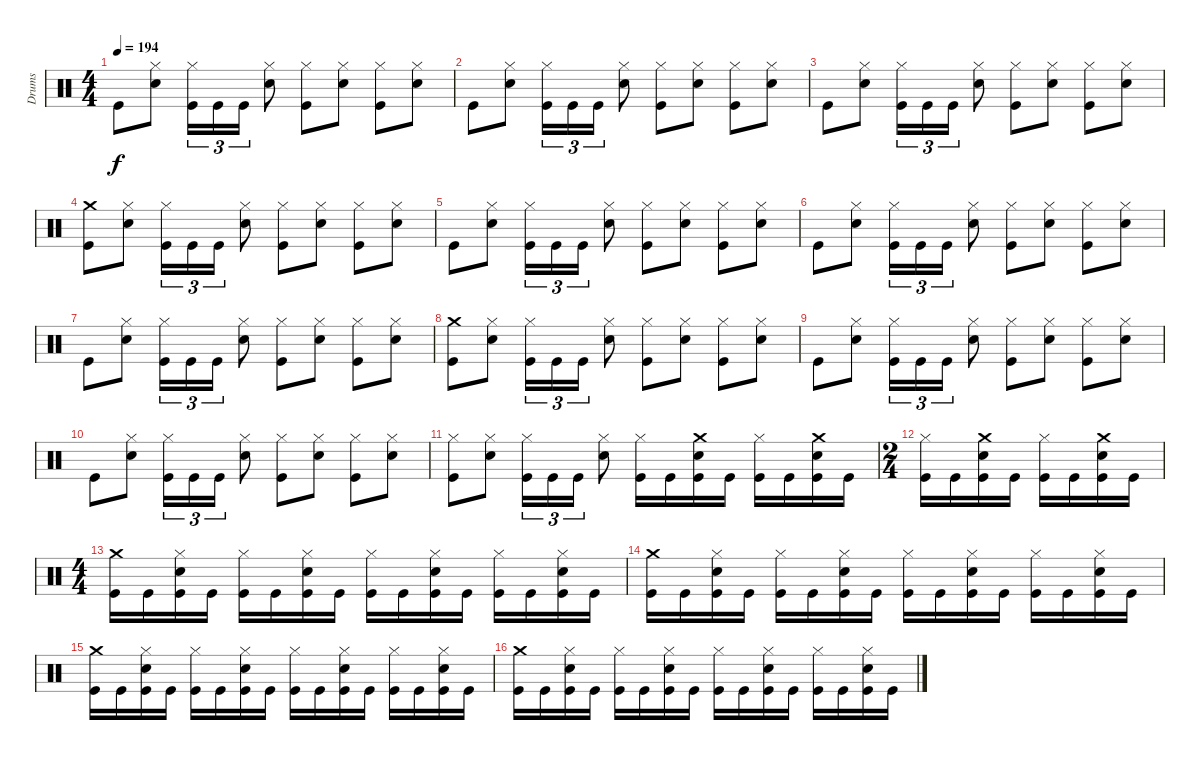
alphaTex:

\track ("Drums" "Drums") {instrument percussion}
\staff {score}
\articulation defaults
\ts (4 4)
\tempo 194
\clef neutral
\ks c "Kick (hit)".8{dy f}
("Hi-Hat (closed)" "Snare (hit) 2").8 ("Hi-Hat (closed)" "Kick (hit)").16{tu (3 2)} "Kick (hit)".16{tu (3 2)} "Kick (hit)".16{tu (3 2)} ("Hi-Hat (closed)" "Snare (hit) 2").8 ("Hi-Hat (closed)" "Kick (hit)").8 ("Hi-Hat (closed)" "Snare (hit) 2").8 ("Hi-Hat (closed)" "Kick (hit)").8 ("Hi-Hat (closed)" "Snare (hit) 2").8 |
"Kick (hit)".8 ("Hi-Hat (closed)" "Snare (hit) 2").8 ("Hi-Hat (closed)" "Kick (hit)").16{tu (3 2)} "Kick (hit)".16{tu (3 2)} "Kick (hit)".16{tu (3 2)} ("Hi-Hat (closed)" "Snare (hit) 2").8 ("Hi-Hat (closed)" "Kick (hit)").8 ("Hi-Hat (closed)" "Snare (hit) 2").8 ("Hi-Hat (closed)" "Kick (hit)").8 ("Hi-Hat (closed)" "Snare (hit) 2").8 |
"Kick (hit)".8 ("Hi-Hat (closed)" "Snare (hit) 2").8 ("Hi-Hat (closed)" "Kick (hit)").16{tu (3 2)} "Kick (hit)".16{tu (3 2)} "Kick (hit)".16{tu (3 2)} ("Hi-Hat (closed)" "Snare (hit) 2").8 ("Hi-Hat (closed)" "Kick (hit)").8 ("Hi-Hat (closed)" "Snare (hit) 2").8 ("Hi-Hat (closed)" "Kick (hit)").8 ("Hi-Hat (closed)" "Snare (hit) 2").8 |
("Crash medium (hit)" "Kick (hit)").8 ("Hi-Hat (closed)" "Snare (hit) 2").8 ("Hi-Hat (closed)" "Kick (hit)").16{tu (3 2)} "Kick (hit)".16{tu (3 2)} "Kick (hit)".16{tu (3 2)} ("Hi-Hat (closed)" "Snare (hit) 2").8 ("Hi-Hat (closed)" "Kick (hit)").8 ("Hi-Hat (closed)" "Snare (hit) 2").8 ("Hi-Hat (closed)" "Kick (hit)").8 ("Hi-Hat (closed)" "Snare (hit) 2").8 |
"Kick (hit)".8 ("Hi-Hat (closed)" "Snare (hit) 2").8 ("Hi-Hat (closed)" "Kick (hit)").16{tu (3 2)} "Kick (hit)".16{tu (3 2)} "Kick (hit)".16{tu (3 2)} ("Hi-Hat (closed)" "Snare (hit) 2").8 ("Hi-Hat (closed)" "Kick (hit)").8 ("Hi-Hat (closed)" "Snare (hit) 2").8 ("Hi-Hat (closed)" "Kick (hit)").8 ("Hi-Hat (closed)" "Snare (hit) 2").8 |
"Kick (hit)".8 ("Hi-Hat (closed)" "Snare (hit) 2").8 ("Hi-Hat (closed)" "Kick (hit)").16{tu (3 2)} "Kick (hit)".16{tu (3 2)} "Kick (hit)".16{tu (3 2)} ("Hi-Hat (closed)" "Snare (hit) 2").8 ("Hi-Hat (closed)" "Kick (hit)").8 ("Hi-Hat (closed)" "Snare (hit) 2").8 ("Hi-Hat (closed)" "Kick (hit)").8 ("Hi-Hat (closed)" "Snare (hit) 2").8 |
"Kick (hit)".8 ("Hi-Hat (closed)" "Snare (hit) 2").8 ("Hi-Hat (closed)" "Kick (hit)").16{tu (3 2)} "Kick (hit)".16{tu (3 2)} "Kick (hit)".16{tu (3 2)} ("Hi-Hat (closed)" "Snare (hit) 2").8 ("Hi-Hat (closed)" "Kick (hit)").8 ("Hi-Hat (closed)" "Snare (hit) 2").8 ("Hi-Hat (closed)" "Kick (hit)").8 ("Hi-Hat (closed)" "Snare (hit) 2").8 |
("Crash medium (hit)" "Kick (hit)").8 ("Hi-Hat (closed)" "Snare (hit) 2").8 ("Hi-Hat (closed)" "Kick (hit)").16{tu (3 2)} "Kick (hit)".16{tu (3 2)} "Kick (hit)".16{tu (3 2)} ("Hi-Hat (closed)" "Snare (hit) 2").8 ("Hi-Hat (closed)" "Kick (hit)").8 ("Hi-Hat (closed)" "Snare (hit) 2").8 ("Hi-Hat (closed)" "Kick (hit)").8 ("Hi-Hat (closed)" "Snare (hit) 2").8 |
"Kick (hit)".8 ("Hi-Hat (closed)" "Snare (hit) 2").8 ("Hi-Hat (closed)" "Kick (hit)").16{tu (3 2)} "Kick (hit)".16{tu (3 2)} "Kick (hit)".16{tu (3 2)} ("Hi-Hat (closed)" "Snare (hit) 2").8 ("Hi-Hat (closed)" "Kick (hit)").8 ("Hi-Hat (closed)" "Snare (hit) 2").8 ("Hi-Hat (closed)" "Kick (hit)").8 ("Hi-Hat (closed)" "Snare (hit) 2").8 |
"Kick (hit)".8 ("Hi-Hat (closed)" "Snare (hit) 2").8 ("Hi-Hat (closed)" "Kick (hit)").16{tu (3 2)} "Kick (hit)".16{tu (3 2)} "Kick (hit)".16{tu (3 2)} ("Hi-Hat (closed)" "Snare (hit) 2").8 ("Hi-Hat (closed)" "Kick (hit)").8 ("Hi-Hat (closed)" "Snare (hit) 2").8 ("Hi-Hat (closed)" "Kick (hit)").8 ("Hi-Hat (closed)" "Snare (hit) 2").8 |
("Hi-Hat (closed)" "Kick (hit)").8 ("Hi-Hat (closed)" "Snare (hit) 2").8 ("Hi-Hat (closed)" "Kick (hit)").16{tu (3 2)} "Kick (hit)".16{tu (3 2)} "Kick (hit)".16{tu (3 2)} ("Hi-Hat (closed)" "Snare (hit) 2").8 ("Hi-Hat (closed)" "Kick (hit)").16 "Kick (hit)".16 ("Crash medium (hit)" "Snare (hit) 2" "Kick (hit)").16 "Kick (hit)".16 ("Hi-Hat (closed)" "Kick (hit)").16 "Kick (hit)".16 ("Crash medium (hit)" "Snare (hit) 2" "Kick (hit)").16 "Kick (hit)".16 |
\ts (2 4)
("Hi-Hat (closed)" "Kick (hit)").16 "Kick (hit)".16 ("Crash medium (hit)" "Snare (hit) 2" "Kick (hit)").16 "Kick (hit)".16 ("Hi-Hat (closed)" "Kick (hit)").16 "Kick (hit)".16 ("Crash medium (hit)" "Snare (hit) 2" "Kick (hit)").16 "Kick (hit)".16 |
\ts (4 4)
("Crash medium (hit)" "Kick (hit)").16 "Kick (hit)".16 ("Hi-Hat (closed)" "Snare (hit) 2" "Kick (hit)").16 "Kick (hit)".16 ("Hi-Hat (closed)" "Kick (hit)").16 "Kick (hit)".16 ("Hi-Hat (closed)" "Snare (hit) 2" "Kick (hit)").16 "Kick (hit)".16 ("Hi-Hat (closed)" "Kick (hit)").16 "Kick (hit)".16 ("Hi-Hat (closed)" "Snare (hit) 2" "Kick (hit)").16 "Kick (hit)".16 ("Hi-Hat (closed)" "Kick (hit)").16 "Kick (hit)".16 ("Hi-Hat (closed)" "Snare (hit) 2" "Kick (hit)").16 "Kick (hit)".16 |
("Crash medium (hit)" "Kick (hit)").16 "Kick (hit)".16 ("Hi-Hat (closed)" "Snare (hit) 2" "Kick (hit)").16 "Kick (hit)".16 ("Hi-Hat (closed)" "Kick (hit)").16 "Kick (hit)".16 ("Hi-Hat (closed)" "Snare (hit) 2" "Kick (hit)").16 "Kick (hit)".16 ("Hi-Hat (closed)" "Kick (hit)").16 "Kick (hit)".16 ("Hi-Hat (closed)" "Snare (hit) 2" "Kick (hit)").16 "Kick (hit)".16 ("Hi-Hat (closed)" "Kick (hit)").16 "Kick (hit)".16 ("Hi-Hat (closed)" "Snare (hit) 2" "Kick (hit)").16 "Kick (hit)".16 |
("Crash medium (hit)" "Kick (hit)").16 "Kick (hit)".16 ("Hi-Hat (closed)" "Snare (hit) 2" "Kick (hit)").16 "Kick (hit)".16 ("Hi-Hat (closed)" "Kick (hit)").16 "Kick (hit)".16 ("Hi-Hat (closed)" "Snare (hit) 2" "Kick (hit)").16 "Kick (hit)".16 ("Hi-Hat (closed)" "Kick (hit)").16 "Kick (hit)".16 ("Hi-Hat (closed)" "Snare (hit) 2" "Kick (hit)").16 "Kick (hit)".16 ("Hi-Hat (closed)" "Kick (hit)").16 "Kick (hit)".16 ("Hi-Hat (closed)" "Snare (hit) 2" "Kick (hit)").16 "Kick (hit)".16 |
("Crash medium (hit)" "Kick (hit)").16 "Kick (hit)".16 ("Hi-Hat (closed)" "Snare (hit) 2" "Kick (hit)").16 "Kick (hit)".16 ("Hi-Hat (closed)" "Kick (hit)").16 "Kick (hit)".16 ("Hi-Hat (closed)" "Snare (hit) 2" "Kick (hit)").16 "Kick (hit)".16 ("Hi-Hat (closed)" "Kick (hit)").16 "Kick (hit)".16 ("Hi-Hat (closed)" "Snare (hit) 2" "Kick (hit)").16 "Kick (hit)".16 ("Hi-Hat (closed)" "Kick (hit)").16 "Kick (hit)".16 ("Hi-Hat (closed)" "Snare (hit) 2" "Kick (hit)").16 "Kick (hit)".16
